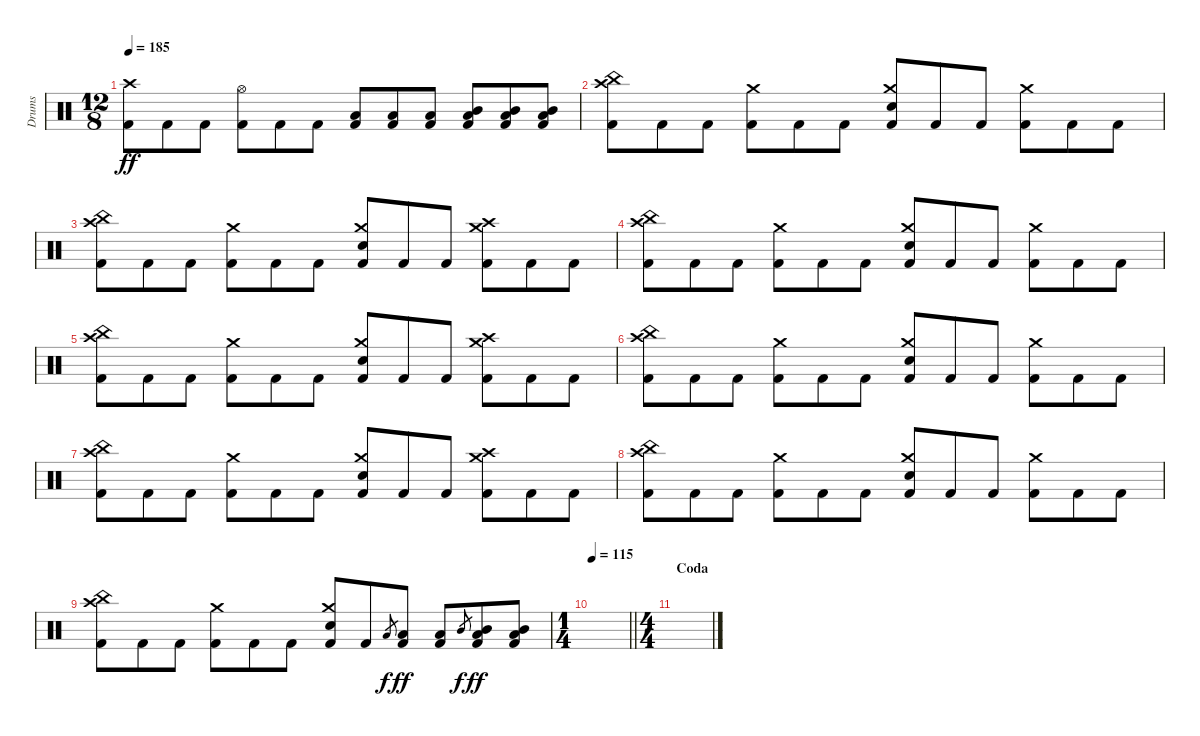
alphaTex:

\track ("Drums" "Drums") {instrument percussion}
\staff {score}
\articulation defaults
\ts (12 8)
\tempo 185
\clef neutral
\ks c
("Crash high (hit)" "Kick (hit) 2").8{dy ff} "Kick (hit) 2".8 "Kick (hit) 2".8 ("Hi-Hat (open)" "Kick (hit) 2").8 "Kick (hit) 2".8 "Kick (hit) 2".8 ("Low Tom (hit)" "Kick (hit) 2").8 ("Low Tom (hit)" "Kick (hit) 2").8 ("Low Tom (hit)" "Kick (hit) 2").8 ("Mid Tom (hit)" "Low Tom (hit)" "Kick (hit) 2").8 ("Mid Tom (hit)" "Low Tom (hit)" "Kick (hit) 2").8 ("Mid Tom (hit)" "Low Tom (hit)" "Kick (hit) 2").8 |
("Crash high (hit)" "China (hit)" "Kick (hit) 2").8 "Kick (hit) 2".8 "Kick (hit) 2".8 ("Crash medium (hit)" "Kick (hit) 2").8 "Kick (hit) 2".8 "Kick (hit) 2".8 ("Crash medium (hit)" "Electric Snare (hit)" "Kick (hit) 2").8 "Kick (hit) 2".8 "Kick (hit) 2".8 ("Crash medium (hit)" "Kick (hit) 2").8 "Kick (hit) 2".8 "Kick (hit) 2".8 |
("Crash high (hit)" "China (hit)" "Kick (hit) 2").8 "Kick (hit) 2".8 "Kick (hit) 2".8 ("Crash medium (hit)" "Kick (hit) 2").8 "Kick (hit) 2".8 "Kick (hit) 2".8 ("Crash medium (hit)" "Electric Snare (hit)" "Kick (hit) 2").8 "Kick (hit) 2".8 "Kick (hit) 2".8 ("Crash medium (hit)" "Crash high (hit)" "Kick (hit) 2").8 "Kick (hit) 2".8 "Kick (hit) 2".8 |
("Crash high (hit)" "China (hit)" "Kick (hit) 2").8 "Kick (hit) 2".8 "Kick (hit) 2".8 ("Crash medium (hit)" "Kick (hit) 2").8 "Kick (hit) 2".8 "Kick (hit) 2".8 ("Crash medium (hit)" "Electric Snare (hit)" "Kick (hit) 2").8 "Kick (hit) 2".8 "Kick (hit) 2".8 ("Crash medium (hit)" "Kick (hit) 2").8 "Kick (hit) 2".8 "Kick (hit) 2".8 |
("Crash high (hit)" "China (hit)" "Kick (hit) 2").8 "Kick (hit) 2".8 "Kick (hit) 2".8 ("Crash medium (hit)" "Kick (hit) 2").8 "Kick (hit) 2".8 "Kick (hit) 2".8 ("Crash medium (hit)" "Electric Snare (hit)" "Kick (hit) 2").8 "Kick (hit) 2".8 "Kick (hit) 2".8 ("Crash medium (hit)" "Crash high (hit)" "Kick (hit) 2").8 "Kick (hit) 2".8 "Kick (hit) 2".8 |
("Crash high (hit)" "China (hit)" "Kick (hit) 2").8 "Kick (hit) 2".8 "Kick (hit) 2".8 ("Crash medium (hit)" "Kick (hit) 2").8 "Kick (hit) 2".8 "Kick (hit) 2".8 ("Crash medium (hit)" "Electric Snare (hit)" "Kick (hit) 2").8 "Kick (hit) 2".8 "Kick (hit) 2".8 ("Crash medium (hit)" "Kick (hit) 2").8 "Kick (hit) 2".8 "Kick (hit) 2".8 |
("Crash high (hit)" "China (hit)" "Kick (hit) 2").8 "Kick (hit) 2".8 "Kick (hit) 2".8 ("Crash medium (hit)" "Kick (hit) 2").8 "Kick (hit) 2".8 "Kick (hit) 2".8 ("Crash medium (hit)" "Electric Snare (hit)" "Kick (hit) 2").8 "Kick (hit) 2".8 "Kick (hit) 2".8 ("Crash medium (hit)" "Crash high (hit)" "Kick (hit) 2").8 "Kick (hit) 2".8 "Kick (hit) 2".8 |
("Crash high (hit)" "China (hit)" "Kick (hit) 2").8 "Kick (hit) 2".8 "Kick (hit) 2".8 ("Crash medium (hit)" "Kick (hit) 2").8 "Kick (hit) 2".8 "Kick (hit) 2".8 ("Crash medium (hit)" "Electric Snare (hit)" "Kick (hit) 2").8 "Kick (hit) 2".8 "Kick (hit) 2".8 ("Crash medium (hit)" "Kick (hit) 2").8 "Kick (hit) 2".8 "Kick (hit) 2".8 |
("Crash high (hit)" "China (hit)" "Kick (hit) 2").8 "Kick (hit) 2".8 "Kick (hit) 2".8 ("Crash medium (hit)" "Kick (hit) 2").8 "Kick (hit) 2".8 "Kick (hit) 2".8 ("Crash medium (hit)" "Electric Snare (hit)" "Kick (hit) 2").8 "Kick (hit) 2".8 "Low Tom (hit)".8{gr dy f} ("Low Tom (hit)" "Kick (hit) 2").8{dy ff} ("Low Tom (hit)" "Kick (hit) 2").8 "Mid Tom (hit)".8{gr dy f} ("Mid Tom (hit)" "Low Tom (hit)" "Kick (hit) 2").8{dy ff} ("Mid Tom (hit)" "Low Tom (hit)" "Kick (hit) 2").8 |
\ts (1 4)
\tempo 115
\barLineRight lightlight
|
\ts (4 4)
\section ("" "Coda")
